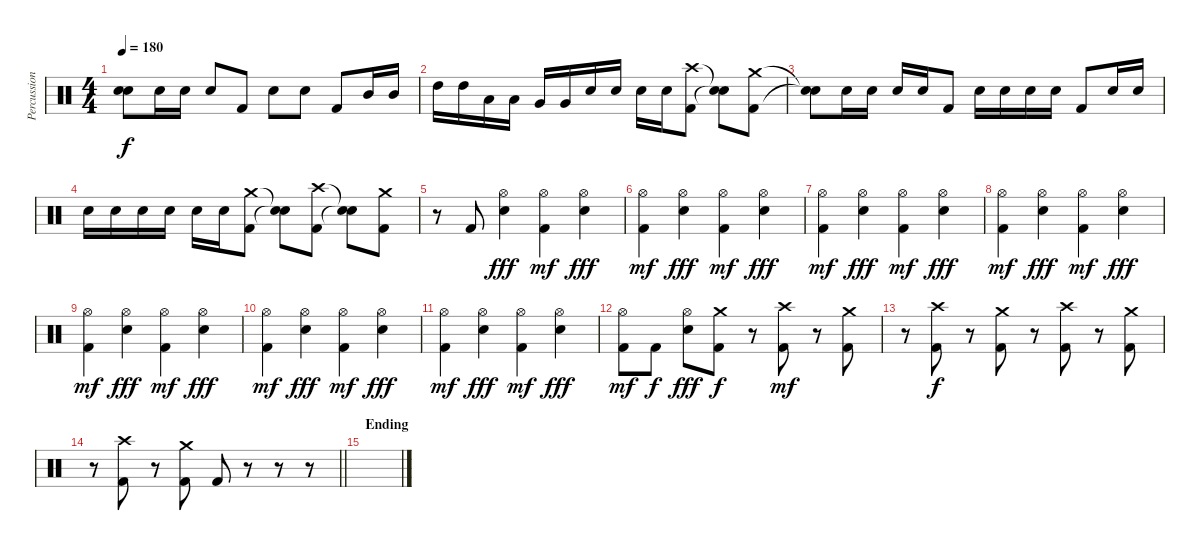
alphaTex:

\track ("Percussions" "Percussion") {instrument percussion}
\staff {score}
\articulation defaults
\ts (4 4)
\tempo 180
\clef neutral
\ks c
("Snare (hit)"{t} "Snare (hit)"{t}).8{dy f} "Electric Snare (hit)".16 "Electric Snare (hit)".16 "Electric Snare (hit)".8 "Kick (hit) 2".8 "Electric Snare (hit)".8 "Electric Snare (hit)".8 "Kick (hit) 2".8 "Mid Tom (hit)".16 "Mid Tom (hit)".16 |
"High Tom (hit)".16 "High Tom (hit)".16 "Low Tom (hit)".16 "Low Tom (hit)".16 "Very Low Tom (hit)".16 "Very Low Tom (hit)".16 "Electric Snare (hit)".16 "Electric Snare (hit)".16 "Electric Snare (hit)".16 "Electric Snare (hit)".16 ("Crash high (hit)" "Kick (hit) 2").8 ("Snare (hit)"{t} "Snare (hit)"{t}).8 ("Crash medium (hit)" "Kick (hit) 2").8 |
("Snare (hit)"{t} "Snare (hit)"{t}).8 "Electric Snare (hit)".16 "Electric Snare (hit)".16 "Electric Snare (hit)".16 "Electric Snare (hit)".16 "Kick (hit) 2".8 "Electric Snare (hit)".16 "Electric Snare (hit)".16 "Electric Snare (hit)".16 "Electric Snare (hit)".16 "Kick (hit) 2".8 "Electric Snare (hit)".16 "Electric Snare (hit)".16 |
"Electric Snare (hit)".16 "Electric Snare (hit)".16 "Electric Snare (hit)".16 "Electric Snare (hit)".16 "Electric Snare (hit)".16 "Electric Snare (hit)".16 ("Crash medium (hit)" "Kick (hit) 2").8 ("Snare (hit)"{t} "Snare (hit)"{t}).8 ("Crash high (hit)" "Kick (hit) 2").8 ("Snare (hit)"{t} "Snare (hit)"{t}).8 ("Crash medium (hit)" "Kick (hit) 2").8 |
r.8 "Kick (hit) 2".8 ("Hi-Hat (open)" "Electric Snare (hit)").4{dy fff} ("Hi-Hat (open)" "Kick (hit) 2").4{dy mf} ("Hi-Hat (open)" "Electric Snare (hit)").4{dy fff} |
("Hi-Hat (open)" "Kick (hit) 2").4{dy mf} ("Hi-Hat (open)" "Electric Snare (hit)").4{dy fff} ("Hi-Hat (open)" "Kick (hit) 2").4{dy mf} ("Hi-Hat (open)" "Electric Snare (hit)").4{dy fff} |
("Hi-Hat (open)" "Kick (hit) 2").4{dy mf} ("Hi-Hat (open)" "Electric Snare (hit)").4{dy fff} ("Hi-Hat (open)" "Kick (hit) 2").4{dy mf} ("Hi-Hat (open)" "Electric Snare (hit)").4{dy fff} |
("Hi-Hat (open)" "Kick (hit) 2").4{dy mf} ("Hi-Hat (open)" "Electric Snare (hit)").4{dy fff} ("Hi-Hat (open)" "Kick (hit) 2").4{dy mf} ("Hi-Hat (open)" "Electric Snare (hit)").4{dy fff} |
("Hi-Hat (open)" "Kick (hit) 2").4{dy mf} ("Hi-Hat (open)" "Electric Snare (hit)").4{dy fff} ("Hi-Hat (open)" "Kick (hit) 2").4{dy mf} ("Hi-Hat (open)" "Electric Snare (hit)").4{dy fff} |
("Hi-Hat (open)" "Kick (hit) 2").4{dy mf} ("Hi-Hat (open)" "Electric Snare (hit)").4{dy fff} ("Hi-Hat (open)" "Kick (hit) 2").4{dy mf} ("Hi-Hat (open)" "Electric Snare (hit)").4{dy fff} |
("Hi-Hat (open)" "Kick (hit) 2").4{dy mf} ("Hi-Hat (open)" "Electric Snare (hit)").4{dy fff} ("Hi-Hat (open)" "Kick (hit) 2").4{dy mf} ("Hi-Hat (open)" "Electric Snare (hit)").4{dy fff} |
("Hi-Hat (open)" "Kick (hit) 2").8{dy mf} "Kick (hit) 2".8{dy f} ("Hi-Hat (open)" "Electric Snare (hit)").8{dy fff} ("Crash medium (hit)" "Kick (hit) 2").8{dy f} r.8 ("Crash high (hit)" "Kick (hit) 2").8{dy mf} r.8 ("Crash medium (hit)" "Kick (hit) 2").8 |
r.8 ("Crash high (hit)" "Kick (hit) 2").8{dy f} r.8 ("Crash medium (hit)" "Kick (hit) 2").8 r.8 ("Crash high (hit)" "Kick (hit) 2").8 r.8 ("Crash medium (hit)" "Kick (hit) 2").8 |
\barLineRight lightlight
r.8 ("Crash high (hit)" "Kick (hit) 2").8 r.8 ("Crash medium (hit)" "Kick (hit) 2").8 "Kick (hit) 2".8 r.8 r.8 r.8 |
\section ("" "Ending")
